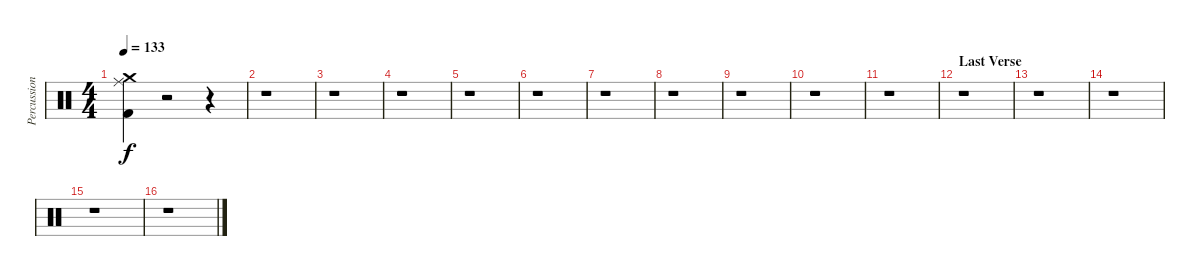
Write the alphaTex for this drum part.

\track ("Percussion" "Percussion") {instrument percussion}
\staff {score}
\articulation defaults
\ts (4 4)
\tempo 133
\clef neutral
\ks c
("Crash medium (hit)" "Ride (middle)" "Kick (hit) 2").4{dy f} r.2 r.4 |
r.1 |
r.1 |
r.1 |
r.1 |
r.1 |
r.1 |
r.1 |
r.1 |
r.1 |
r.1 |
\section ("" "Last Verse")
r.1 |
r.1 |
r.1 |
r.1 |
r.1
